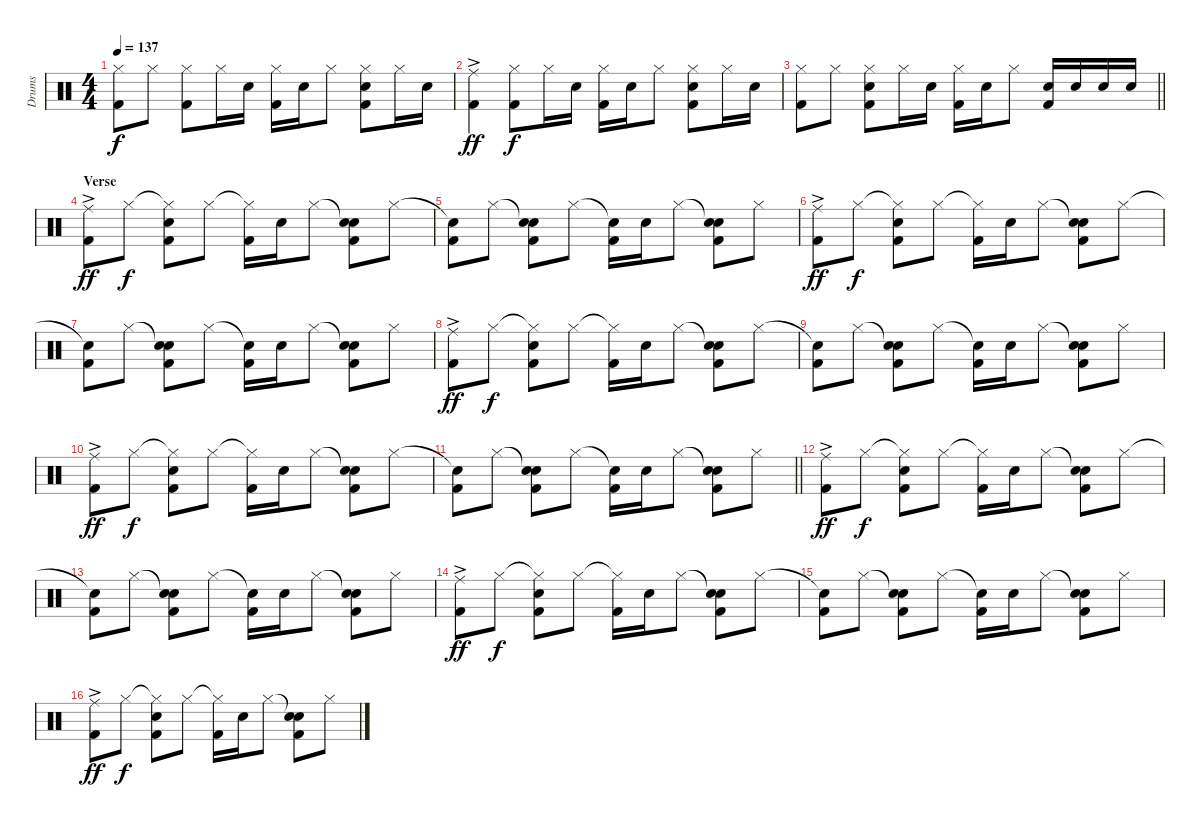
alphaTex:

\track ("Drums" "Drums") {instrument percussion}
\staff {score}
\articulation defaults
\ts (4 4)
\tempo 137
\clef neutral
\ks c
("Hi-Hat (closed)" "Kick (hit) 2").8{dy f} "Hi-Hat (closed)".8 ("Hi-Hat (closed)" "Kick (hit) 2").8 "Hi-Hat (closed)".16 "Electric Snare (hit)".16 ("Hi-Hat (closed)" "Kick (hit) 2").16 "Electric Snare (hit)".16 "Hi-Hat (closed)".8 ("Hi-Hat (closed)" "Electric Snare (hit)" "Kick (hit) 2").8 "Hi-Hat (closed)".16 "Electric Snare (hit)".16 |
("Ride (middle)"{ac} "Kick (hit) 2").4{dy ff} ("Hi-Hat (closed)" "Kick (hit) 2").8{dy f} "Hi-Hat (closed)".16 "Electric Snare (hit)".16 ("Hi-Hat (closed)" "Kick (hit) 2").16 "Electric Snare (hit)".16 "Hi-Hat (closed)".8 ("Hi-Hat (closed)" "Electric Snare (hit)" "Kick (hit) 2").8 "Hi-Hat (closed)".16 "Electric Snare (hit)".16 |
\barLineRight lightlight
("Hi-Hat (closed)" "Kick (hit) 2").8 "Hi-Hat (closed)".8 ("Hi-Hat (closed)" "Electric Snare (hit)" "Kick (hit) 2").8 "Hi-Hat (closed)".16 "Electric Snare (hit)".16 ("Hi-Hat (closed)" "Kick (hit) 2").16 "Electric Snare (hit)".16 "Hi-Hat (closed)".8 ("Electric Snare (hit)" "Kick (hit) 2").16 "Electric Snare (hit)".16 "Electric Snare (hit)".16 "Electric Snare (hit)".16 |
\section ("" "Verse")
("Ride (middle)"{ac} "Kick (hit) 2").8{dy ff} "Hi-Hat (closed)".8{dy f} ("Hi-Hat (closed)"{t} "Electric Snare (hit)" "Kick (hit) 2").8 "Hi-Hat (closed)".8 ("Hi-Hat (closed)"{t} "Kick (hit) 2").16 "Electric Snare (hit)".16 "Hi-Hat (closed)".8 ("Snare (hit)"{t} "Electric Snare (hit)" "Kick (hit) 2").8 "Hi-Hat (closed)".8 |
("Snare (hit)"{t} "Kick (hit) 2").8 "Hi-Hat (closed)".8 ("Snare (hit)"{t} "Electric Snare (hit)" "Kick (hit) 2").8 "Hi-Hat (closed)".8 ("Snare (hit)"{t} "Kick (hit) 2").16 "Electric Snare (hit)".16 "Hi-Hat (closed)".8 ("Snare (hit)"{t} "Electric Snare (hit)" "Kick (hit) 2").8 "Hi-Hat (closed)".8 |
("Ride (middle)"{ac} "Kick (hit) 2").8{dy ff} "Hi-Hat (closed)".8{dy f} ("Hi-Hat (closed)"{t} "Electric Snare (hit)" "Kick (hit) 2").8 "Hi-Hat (closed)".8 ("Hi-Hat (closed)"{t} "Kick (hit) 2").16 "Electric Snare (hit)".16 "Hi-Hat (closed)".8 ("Snare (hit)"{t} "Electric Snare (hit)" "Kick (hit) 2").8 "Hi-Hat (closed)".8 |
("Snare (hit)"{t} "Kick (hit) 2").8 "Hi-Hat (closed)".8 ("Snare (hit)"{t} "Electric Snare (hit)" "Kick (hit) 2").8 "Hi-Hat (closed)".8 ("Snare (hit)"{t} "Kick (hit) 2").16 "Electric Snare (hit)".16 "Hi-Hat (closed)".8 ("Snare (hit)"{t} "Electric Snare (hit)" "Kick (hit) 2").8 "Hi-Hat (closed)".8 |
("Ride (middle)"{ac} "Kick (hit) 2").8{dy ff} "Hi-Hat (closed)".8{dy f} ("Hi-Hat (closed)"{t} "Electric Snare (hit)" "Kick (hit) 2").8 "Hi-Hat (closed)".8 ("Hi-Hat (closed)"{t} "Kick (hit) 2").16 "Electric Snare (hit)".16 "Hi-Hat (closed)".8 ("Snare (hit)"{t} "Electric Snare (hit)" "Kick (hit) 2").8 "Hi-Hat (closed)".8 |
("Snare (hit)"{t} "Kick (hit) 2").8 "Hi-Hat (closed)".8 ("Snare (hit)"{t} "Electric Snare (hit)" "Kick (hit) 2").8 "Hi-Hat (closed)".8 ("Snare (hit)"{t} "Kick (hit) 2").16 "Electric Snare (hit)".16 "Hi-Hat (closed)".8 ("Snare (hit)"{t} "Electric Snare (hit)" "Kick (hit) 2").8 "Hi-Hat (closed)".8 |
("Ride (middle)"{ac} "Kick (hit) 2").8{dy ff} "Hi-Hat (closed)".8{dy f} ("Hi-Hat (closed)"{t} "Electric Snare (hit)" "Kick (hit) 2").8 "Hi-Hat (closed)".8 ("Hi-Hat (closed)"{t} "Kick (hit) 2").16 "Electric Snare (hit)".16 "Hi-Hat (closed)".8 ("Snare (hit)"{t} "Electric Snare (hit)" "Kick (hit) 2").8 "Hi-Hat (closed)".8 |
\barLineRight lightlight
("Snare (hit)"{t} "Kick (hit) 2").8 "Hi-Hat (closed)".8 ("Snare (hit)"{t} "Electric Snare (hit)" "Kick (hit) 2").8 "Hi-Hat (closed)".8 ("Snare (hit)"{t} "Kick (hit) 2").16 "Electric Snare (hit)".16 "Hi-Hat (closed)".8 ("Snare (hit)"{t} "Electric Snare (hit)" "Kick (hit) 2").8 "Hi-Hat (closed)".8 |
\section ("" "")
("Ride (middle)"{ac} "Kick (hit) 2").8{dy ff} "Hi-Hat (closed)".8{dy f} ("Hi-Hat (closed)"{t} "Electric Snare (hit)" "Kick (hit) 2").8 "Hi-Hat (closed)".8 ("Hi-Hat (closed)"{t} "Kick (hit) 2").16 "Electric Snare (hit)".16 "Hi-Hat (closed)".8 ("Snare (hit)"{t} "Electric Snare (hit)" "Kick (hit) 2").8 "Hi-Hat (closed)".8 |
("Snare (hit)"{t} "Kick (hit) 2").8 "Hi-Hat (closed)".8 ("Snare (hit)"{t} "Electric Snare (hit)" "Kick (hit) 2").8 "Hi-Hat (closed)".8 ("Snare (hit)"{t} "Kick (hit) 2").16 "Electric Snare (hit)".16 "Hi-Hat (closed)".8 ("Snare (hit)"{t} "Electric Snare (hit)" "Kick (hit) 2").8 "Hi-Hat (closed)".8 |
("Ride (middle)"{ac} "Kick (hit) 2").8{dy ff} "Hi-Hat (closed)".8{dy f} ("Hi-Hat (closed)"{t} "Electric Snare (hit)" "Kick (hit) 2").8 "Hi-Hat (closed)".8 ("Hi-Hat (closed)"{t} "Kick (hit) 2").16 "Electric Snare (hit)".16 "Hi-Hat (closed)".8 ("Snare (hit)"{t} "Electric Snare (hit)" "Kick (hit) 2").8 "Hi-Hat (closed)".8 |
("Snare (hit)"{t} "Kick (hit) 2").8 "Hi-Hat (closed)".8 ("Snare (hit)"{t} "Electric Snare (hit)" "Kick (hit) 2").8 "Hi-Hat (closed)".8 ("Snare (hit)"{t} "Kick (hit) 2").16 "Electric Snare (hit)".16 "Hi-Hat (closed)".8 ("Snare (hit)"{t} "Electric Snare (hit)" "Kick (hit) 2").8 "Hi-Hat (closed)".8 |
("Ride (middle)"{ac} "Kick (hit) 2").8{dy ff} "Hi-Hat (closed)".8{dy f} ("Hi-Hat (closed)"{t} "Electric Snare (hit)" "Kick (hit) 2").8 "Hi-Hat (closed)".8 ("Hi-Hat (closed)"{t} "Kick (hit) 2").16 "Electric Snare (hit)".16 "Hi-Hat (closed)".8 ("Snare (hit)"{t} "Electric Snare (hit)" "Kick (hit) 2").8 "Hi-Hat (closed)".8
